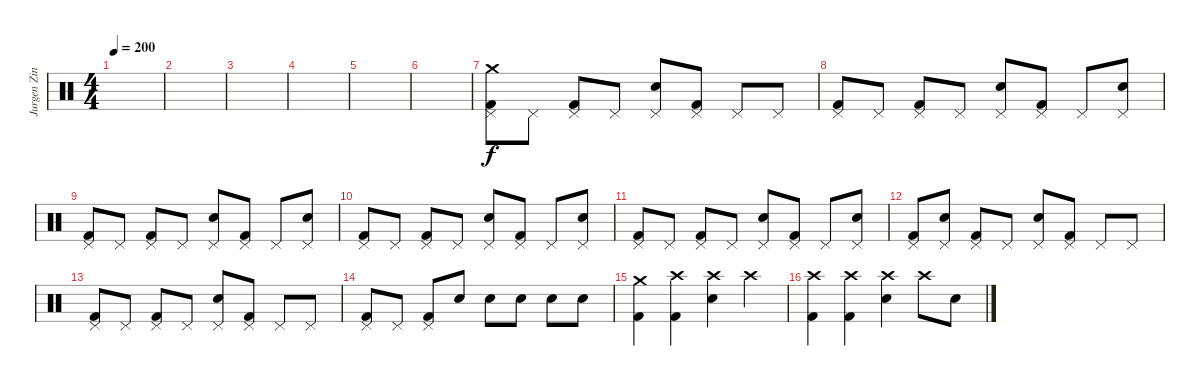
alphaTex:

\track ("Jurgen Zink" "Jurgen Zin") {instrument percussion}
\staff {score}
\articulation defaults
\ts (4 4)
\tempo 200
\clef neutral
\ks c
|
|
|
|
|
|
("Crash medium (hit)" "Pedal Hi-Hat (hit)" "Kick (hit) 2").8{dy f} "Pedal Hi-Hat (hit)".8 ("Pedal Hi-Hat (hit)" "Kick (hit) 2").8 "Pedal Hi-Hat (hit)".8 ("Pedal Hi-Hat (hit)" "Electric Snare (hit)").8 ("Pedal Hi-Hat (hit)" "Kick (hit) 2").8 "Pedal Hi-Hat (hit)".8 "Pedal Hi-Hat (hit)".8 |
("Pedal Hi-Hat (hit)" "Kick (hit) 2").8 "Pedal Hi-Hat (hit)".8 ("Pedal Hi-Hat (hit)" "Kick (hit) 2").8 "Pedal Hi-Hat (hit)".8 ("Pedal Hi-Hat (hit)" "Electric Snare (hit)").8 ("Pedal Hi-Hat (hit)" "Kick (hit) 2").8 "Pedal Hi-Hat (hit)".8 ("Pedal Hi-Hat (hit)" "Electric Snare (hit)").8 |
("Pedal Hi-Hat (hit)" "Kick (hit) 2").8 "Pedal Hi-Hat (hit)".8 ("Pedal Hi-Hat (hit)" "Kick (hit) 2").8 "Pedal Hi-Hat (hit)".8 ("Pedal Hi-Hat (hit)" "Electric Snare (hit)").8 ("Pedal Hi-Hat (hit)" "Kick (hit) 2").8 "Pedal Hi-Hat (hit)".8 ("Pedal Hi-Hat (hit)" "Electric Snare (hit)").8 |
("Pedal Hi-Hat (hit)" "Kick (hit) 2").8 "Pedal Hi-Hat (hit)".8 ("Pedal Hi-Hat (hit)" "Kick (hit) 2").8 "Pedal Hi-Hat (hit)".8 ("Pedal Hi-Hat (hit)" "Electric Snare (hit)").8 ("Pedal Hi-Hat (hit)" "Kick (hit) 2").8 "Pedal Hi-Hat (hit)".8 ("Pedal Hi-Hat (hit)" "Electric Snare (hit)").8 |
("Pedal Hi-Hat (hit)" "Kick (hit) 2").8 "Pedal Hi-Hat (hit)".8 ("Pedal Hi-Hat (hit)" "Kick (hit) 2").8 "Pedal Hi-Hat (hit)".8 ("Pedal Hi-Hat (hit)" "Electric Snare (hit)").8 ("Pedal Hi-Hat (hit)" "Kick (hit) 2").8 "Pedal Hi-Hat (hit)".8 ("Pedal Hi-Hat (hit)" "Electric Snare (hit)").8 |
("Pedal Hi-Hat (hit)" "Kick (hit) 2").8 ("Pedal Hi-Hat (hit)" "Electric Snare (hit)").8 ("Pedal Hi-Hat (hit)" "Kick (hit) 2").8 "Pedal Hi-Hat (hit)".8 ("Pedal Hi-Hat (hit)" "Electric Snare (hit)").8 ("Pedal Hi-Hat (hit)" "Kick (hit) 2").8 "Pedal Hi-Hat (hit)".8 "Pedal Hi-Hat (hit)".8 |
("Pedal Hi-Hat (hit)" "Kick (hit) 2").8 "Pedal Hi-Hat (hit)".8 ("Pedal Hi-Hat (hit)" "Kick (hit) 2").8 "Pedal Hi-Hat (hit)".8 ("Pedal Hi-Hat (hit)" "Electric Snare (hit)").8 ("Pedal Hi-Hat (hit)" "Kick (hit) 2").8 "Pedal Hi-Hat (hit)".8 "Pedal Hi-Hat (hit)".8 |
("Pedal Hi-Hat (hit)" "Kick (hit) 2").8 "Pedal Hi-Hat (hit)".8 ("Pedal Hi-Hat (hit)" "Kick (hit) 2").8 "Electric Snare (hit)".8 "Electric Snare (hit)".8 "Electric Snare (hit)".8 "Electric Snare (hit)".8 "Electric Snare (hit)".8 |
("Crash medium (hit)" "Kick (hit) 2").4 ("Crash high (hit)" "Kick (hit) 2").4 ("Crash high (hit)" "Electric Snare (hit)").4 "Crash high (hit)".4 |
("Crash high (hit)" "Kick (hit) 2").4 ("Crash high (hit)" "Kick (hit) 2").4 ("Crash high (hit)" "Electric Snare (hit)").4 "Crash high (hit)".8 "Electric Snare (hit)".8
